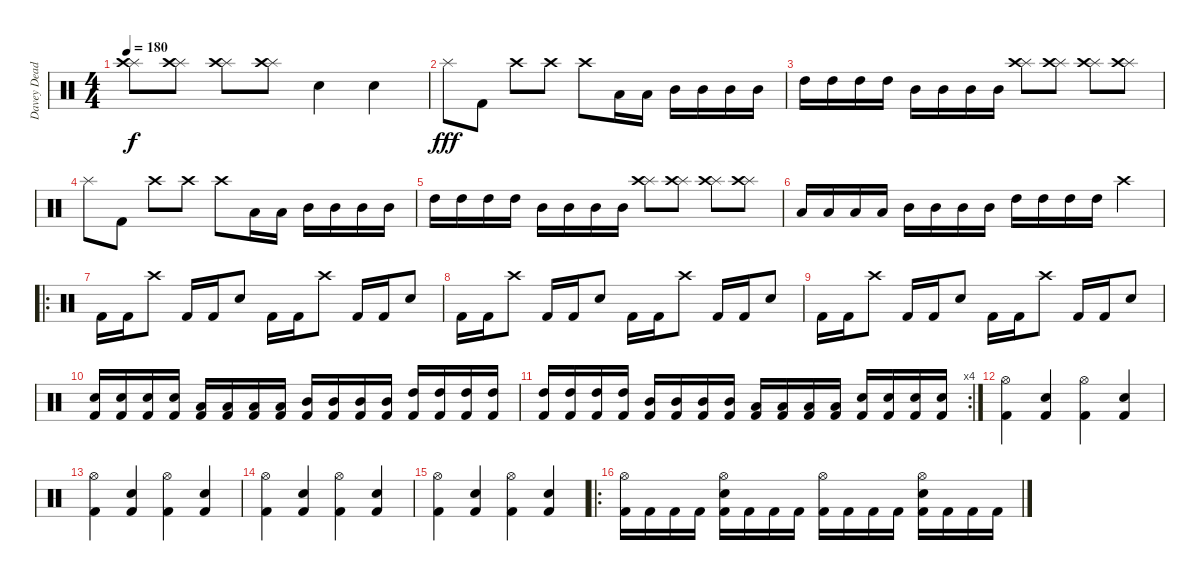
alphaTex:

\track ("Davey Dead" "Davey Dead") {instrument percussion}
\staff {score}
\articulation defaults
\ts (4 4)
\tempo 180
\clef neutral
\ks c
("Splash (hit)" "Crash high (hit)").8{dy f} ("Splash (hit)" "Crash high (hit)").8 ("Splash (hit)" "Crash high (hit)").8 ("Splash (hit)" "Crash high (hit)").8 "Electric Snare (hit)".4 "Electric Snare (hit)".4 |
"Splash (hit)".8{dy fff} "Kick (hit) 2".8 "Crash high (hit)".8 "Crash high (hit)".8 "Crash high (hit)".8 "Low Tom (hit)".16 "Low Tom (hit)".16 "Mid Tom (hit)".16 "Mid Tom (hit)".16 "Mid Tom (hit)".16 "Mid Tom (hit)".16 |
"High Tom (hit)".16 "High Tom (hit)".16 "High Tom (hit)".16 "High Tom (hit)".16 "Mid Tom (hit)".16 "Mid Tom (hit)".16 "Mid Tom (hit)".16 "Mid Tom (hit)".16 ("Splash (hit)" "Crash high (hit)").8 ("Splash (hit)" "Crash high (hit)").8 ("Splash (hit)" "Crash high (hit)").8 ("Splash (hit)" "Crash high (hit)").8 |
"Splash (hit)".8 "Kick (hit) 2".8 "Crash high (hit)".8 "Crash high (hit)".8 "Crash high (hit)".8 "Low Tom (hit)".16 "Low Tom (hit)".16 "Mid Tom (hit)".16 "Mid Tom (hit)".16 "Mid Tom (hit)".16 "Mid Tom (hit)".16 |
"High Tom (hit)".16 "High Tom (hit)".16 "High Tom (hit)".16 "High Tom (hit)".16 "Mid Tom (hit)".16 "Mid Tom (hit)".16 "Mid Tom (hit)".16 "Mid Tom (hit)".16 ("Splash (hit)" "Crash high (hit)").8 ("Splash (hit)" "Crash high (hit)").8 ("Splash (hit)" "Crash high (hit)").8 ("Splash (hit)" "Crash high (hit)").8 |
"Low Tom (hit)".16 "Low Tom (hit)".16 "Low Tom (hit)".16 "Low Tom (hit)".16 "Mid Tom (hit)".16 "Mid Tom (hit)".16 "Mid Tom (hit)".16 "Mid Tom (hit)".16 "High Tom (hit)".16 "High Tom (hit)".16 "High Tom (hit)".16 "High Tom (hit)".16 "Crash high (hit)".4 |
\ro "Kick (hit) 2".16 "Kick (hit) 2".16 "Crash high (hit)".8 "Kick (hit) 2".16 "Kick (hit) 2".16 "Electric Snare (hit)".8 "Kick (hit) 2".16 "Kick (hit) 2".16 "Crash high (hit)".8 "Kick (hit) 2".16 "Kick (hit) 2".16 "Electric Snare (hit)".8
|
"Kick (hit) 2".16 "Kick (hit) 2".16 "Crash high (hit)".8 "Kick (hit) 2".16 "Kick (hit) 2".16 "Electric Snare (hit)".8 "Kick (hit) 2".16 "Kick (hit) 2".16 "Crash high (hit)".8 "Kick (hit) 2".16 "Kick (hit) 2".16 "Electric Snare (hit)".8 |
"Kick (hit) 2".16 "Kick (hit) 2".16 "Crash high (hit)".8 "Kick (hit) 2".16 "Kick (hit) 2".16 "Electric Snare (hit)".8 "Kick (hit) 2".16 "Kick (hit) 2".16 "Crash high (hit)".8 "Kick (hit) 2".16 "Kick (hit) 2".16 "Electric Snare (hit)".8 |
("Electric Snare (hit)" "Kick (hit) 2").16 ("Electric Snare (hit)" "Kick (hit) 2").16 ("Electric Snare (hit)" "Kick (hit) 2").16 ("Electric Snare (hit)" "Kick (hit) 2").16 ("Low Tom (hit)" "Kick (hit) 2").16 ("Low Tom (hit)" "Kick (hit) 2").16 ("Low Tom (hit)" "Kick (hit) 2").16 ("Low Tom (hit)" "Kick (hit) 2").16 ("Mid Tom (hit)" "Kick (hit) 2").16 ("Mid Tom (hit)" "Kick (hit) 2").16 ("Mid Tom (hit)" "Kick (hit) 2").16 ("Mid Tom (hit)" "Kick (hit) 2").16 ("High Tom (hit)" "Kick (hit) 2").16 ("High Tom (hit)" "Kick (hit) 2").16 ("High Tom (hit)" "Kick (hit) 2").16 ("High Tom (hit)" "Kick (hit) 2").16 |
\rc 4
("High Tom (hit)" "Kick (hit) 2").16 ("High Tom (hit)" "Kick (hit) 2").16 ("High Tom (hit)" "Kick (hit) 2").16 ("High Tom (hit)" "Kick (hit) 2").16 ("Mid Tom (hit)" "Kick (hit) 2").16 ("Mid Tom (hit)" "Kick (hit) 2").16 ("Mid Tom (hit)" "Kick (hit) 2").16 ("Mid Tom (hit)" "Kick (hit) 2").16 ("Low Tom (hit)" "Kick (hit) 2").16 ("Low Tom (hit)" "Kick (hit) 2").16 ("Low Tom (hit)" "Kick (hit) 2").16 ("Low Tom (hit)" "Kick (hit) 2").16 ("Electric Snare (hit)" "Kick (hit) 2").16 ("Electric Snare (hit)" "Kick (hit) 2").16 ("Electric Snare (hit)" "Kick (hit) 2").16 ("Electric Snare (hit)" "Kick (hit) 2").16 |
("Hi-Hat (open)" "Kick (hit) 2").4 ("Electric Snare (hit)" "Kick (hit) 2").4 ("Hi-Hat (open)" "Kick (hit) 2").4 ("Electric Snare (hit)" "Kick (hit) 2").4 |
("Hi-Hat (open)" "Kick (hit) 2").4 ("Electric Snare (hit)" "Kick (hit) 2").4 ("Hi-Hat (open)" "Kick (hit) 2").4 ("Electric Snare (hit)" "Kick (hit) 2").4 |
("Hi-Hat (open)" "Kick (hit) 2").4 ("Electric Snare (hit)" "Kick (hit) 2").4 ("Hi-Hat (open)" "Kick (hit) 2").4 ("Electric Snare (hit)" "Kick (hit) 2").4 |
("Hi-Hat (open)" "Kick (hit) 2").4 ("Electric Snare (hit)" "Kick (hit) 2").4 ("Hi-Hat (open)" "Kick (hit) 2").4 ("Electric Snare (hit)" "Kick (hit) 2").4 |
\ro
("Hi-Hat (open)" "Kick (hit) 2").16 "Kick (hit) 2".16 "Kick (hit) 2".16 "Kick (hit) 2".16 ("Hi-Hat (open)" "Electric Snare (hit)" "Kick (hit) 2").16 "Kick (hit) 2".16 "Kick (hit) 2".16 "Kick (hit) 2".16 ("Hi-Hat (open)" "Kick (hit) 2").16 "Kick (hit) 2".16 "Kick (hit) 2".16 "Kick (hit) 2".16 ("Hi-Hat (open)" "Electric Snare (hit)" "Kick (hit) 2").16 "Kick (hit) 2".16 "Kick (hit) 2".16 "Kick (hit) 2".16
